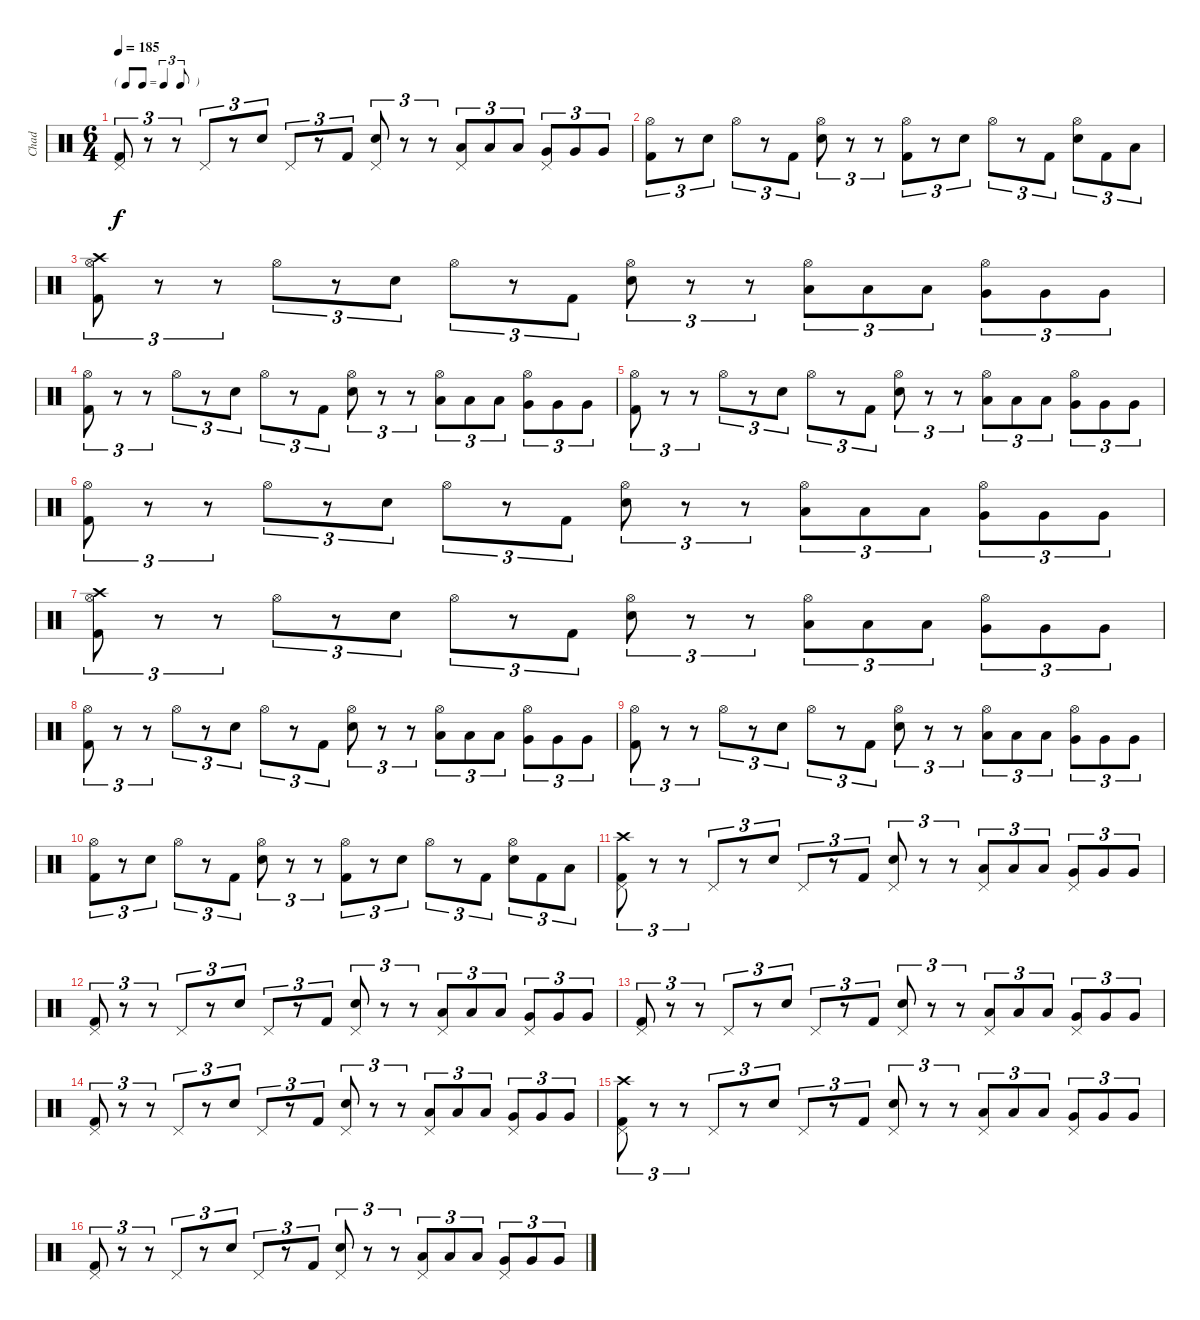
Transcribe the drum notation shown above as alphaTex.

\track ("Chad" "Chad") {instrument percussion}
\staff {score}
\articulation defaults
\ts (6 4)
\tf triplet8th
\tempo 185
\clef neutral
\ks c
("Kick (hit) 2" "Pedal Hi-Hat (hit)").8{tu (3 2) dy f} r.8{tu (3 2)} r.8{tu (3 2)} "Pedal Hi-Hat (hit)".8{tu (3 2)} r.8{tu (3 2)} "Electric Snare (hit)".8{tu (3 2)} "Pedal Hi-Hat (hit)".8{tu (3 2)} r.8{tu (3 2)} "Kick (hit) 2".8{tu (3 2)} ("Electric Snare (hit)" "Pedal Hi-Hat (hit)").8{tu (3 2)} r.8{tu (3 2)} r.8{tu (3 2)} ("Low Tom (hit)" "Pedal Hi-Hat (hit)").8{tu (3 2)} "Low Tom (hit)".8{tu (3 2)} "Low Tom (hit)".8{tu (3 2)} ("Very Low Tom (hit)" "Pedal Hi-Hat (hit)").8{tu (3 2)} "Very Low Tom (hit)".8{tu (3 2)} "Very Low Tom (hit)".8{tu (3 2)} |
("Kick (hit) 2" "Hi-Hat (open)").8{tu (3 2)} r.8{tu (3 2)} "Electric Snare (hit)".8{tu (3 2)} "Hi-Hat (open)".8{tu (3 2)} r.8{tu (3 2)} "Kick (hit) 2".8{tu (3 2)} ("Electric Snare (hit)" "Hi-Hat (open)").8{tu (3 2)} r.8{tu (3 2)} r.8{tu (3 2)} ("Kick (hit) 2" "Hi-Hat (open)").8{tu (3 2)} r.8{tu (3 2)} "Electric Snare (hit)".8{tu (3 2)} "Hi-Hat (open)".8{tu (3 2)} r.8{tu (3 2)} "Kick (hit) 2".8{tu (3 2)} ("Electric Snare (hit)" "Hi-Hat (open)").8{tu (3 2)} "Kick (hit) 2".8{tu (3 2)} "Low Tom (hit)".8{tu (3 2)} |
("Kick (hit) 2" "Hi-Hat (open)" "Crash high (hit)").8{tu (3 2)} r.8{tu (3 2)} r.8{tu (3 2)} "Hi-Hat (open)".8{tu (3 2)} r.8{tu (3 2)} "Electric Snare (hit)".8{tu (3 2)} "Hi-Hat (open)".8{tu (3 2)} r.8{tu (3 2)} "Kick (hit) 2".8{tu (3 2)} ("Electric Snare (hit)" "Hi-Hat (open)").8{tu (3 2)} r.8{tu (3 2)} r.8{tu (3 2)} ("Low Tom (hit)" "Hi-Hat (open)").8{tu (3 2)} "Low Tom (hit)".8{tu (3 2)} "Low Tom (hit)".8{tu (3 2)} ("Very Low Tom (hit)" "Hi-Hat (open)").8{tu (3 2)} "Very Low Tom (hit)".8{tu (3 2)} "Very Low Tom (hit)".8{tu (3 2)} |
("Kick (hit) 2" "Hi-Hat (open)").8{tu (3 2)} r.8{tu (3 2)} r.8{tu (3 2)} "Hi-Hat (open)".8{tu (3 2)} r.8{tu (3 2)} "Electric Snare (hit)".8{tu (3 2)} "Hi-Hat (open)".8{tu (3 2)} r.8{tu (3 2)} "Kick (hit) 2".8{tu (3 2)} ("Electric Snare (hit)" "Hi-Hat (open)").8{tu (3 2)} r.8{tu (3 2)} r.8{tu (3 2)} ("Low Tom (hit)" "Hi-Hat (open)").8{tu (3 2)} "Low Tom (hit)".8{tu (3 2)} "Low Tom (hit)".8{tu (3 2)} ("Very Low Tom (hit)" "Hi-Hat (open)").8{tu (3 2)} "Very Low Tom (hit)".8{tu (3 2)} "Very Low Tom (hit)".8{tu (3 2)} |
("Kick (hit) 2" "Hi-Hat (open)").8{tu (3 2)} r.8{tu (3 2)} r.8{tu (3 2)} "Hi-Hat (open)".8{tu (3 2)} r.8{tu (3 2)} "Electric Snare (hit)".8{tu (3 2)} "Hi-Hat (open)".8{tu (3 2)} r.8{tu (3 2)} "Kick (hit) 2".8{tu (3 2)} ("Electric Snare (hit)" "Hi-Hat (open)").8{tu (3 2)} r.8{tu (3 2)} r.8{tu (3 2)} ("Low Tom (hit)" "Hi-Hat (open)").8{tu (3 2)} "Low Tom (hit)".8{tu (3 2)} "Low Tom (hit)".8{tu (3 2)} ("Very Low Tom (hit)" "Hi-Hat (open)").8{tu (3 2)} "Very Low Tom (hit)".8{tu (3 2)} "Very Low Tom (hit)".8{tu (3 2)} |
("Kick (hit) 2" "Hi-Hat (open)").8{tu (3 2)} r.8{tu (3 2)} r.8{tu (3 2)} "Hi-Hat (open)".8{tu (3 2)} r.8{tu (3 2)} "Electric Snare (hit)".8{tu (3 2)} "Hi-Hat (open)".8{tu (3 2)} r.8{tu (3 2)} "Kick (hit) 2".8{tu (3 2)} ("Electric Snare (hit)" "Hi-Hat (open)").8{tu (3 2)} r.8{tu (3 2)} r.8{tu (3 2)} ("Low Tom (hit)" "Hi-Hat (open)").8{tu (3 2)} "Low Tom (hit)".8{tu (3 2)} "Low Tom (hit)".8{tu (3 2)} ("Very Low Tom (hit)" "Hi-Hat (open)").8{tu (3 2)} "Very Low Tom (hit)".8{tu (3 2)} "Very Low Tom (hit)".8{tu (3 2)} |
("Kick (hit) 2" "Hi-Hat (open)" "Crash high (hit)").8{tu (3 2)} r.8{tu (3 2)} r.8{tu (3 2)} "Hi-Hat (open)".8{tu (3 2)} r.8{tu (3 2)} "Electric Snare (hit)".8{tu (3 2)} "Hi-Hat (open)".8{tu (3 2)} r.8{tu (3 2)} "Kick (hit) 2".8{tu (3 2)} ("Electric Snare (hit)" "Hi-Hat (open)").8{tu (3 2)} r.8{tu (3 2)} r.8{tu (3 2)} ("Low Tom (hit)" "Hi-Hat (open)").8{tu (3 2)} "Low Tom (hit)".8{tu (3 2)} "Low Tom (hit)".8{tu (3 2)} ("Very Low Tom (hit)" "Hi-Hat (open)").8{tu (3 2)} "Very Low Tom (hit)".8{tu (3 2)} "Very Low Tom (hit)".8{tu (3 2)} |
("Kick (hit) 2" "Hi-Hat (open)").8{tu (3 2)} r.8{tu (3 2)} r.8{tu (3 2)} "Hi-Hat (open)".8{tu (3 2)} r.8{tu (3 2)} "Electric Snare (hit)".8{tu (3 2)} "Hi-Hat (open)".8{tu (3 2)} r.8{tu (3 2)} "Kick (hit) 2".8{tu (3 2)} ("Electric Snare (hit)" "Hi-Hat (open)").8{tu (3 2)} r.8{tu (3 2)} r.8{tu (3 2)} ("Low Tom (hit)" "Hi-Hat (open)").8{tu (3 2)} "Low Tom (hit)".8{tu (3 2)} "Low Tom (hit)".8{tu (3 2)} ("Very Low Tom (hit)" "Hi-Hat (open)").8{tu (3 2)} "Very Low Tom (hit)".8{tu (3 2)} "Very Low Tom (hit)".8{tu (3 2)} |
("Kick (hit) 2" "Hi-Hat (open)").8{tu (3 2)} r.8{tu (3 2)} r.8{tu (3 2)} "Hi-Hat (open)".8{tu (3 2)} r.8{tu (3 2)} "Electric Snare (hit)".8{tu (3 2)} "Hi-Hat (open)".8{tu (3 2)} r.8{tu (3 2)} "Kick (hit) 2".8{tu (3 2)} ("Electric Snare (hit)" "Hi-Hat (open)").8{tu (3 2)} r.8{tu (3 2)} r.8{tu (3 2)} ("Low Tom (hit)" "Hi-Hat (open)").8{tu (3 2)} "Low Tom (hit)".8{tu (3 2)} "Low Tom (hit)".8{tu (3 2)} ("Very Low Tom (hit)" "Hi-Hat (open)").8{tu (3 2)} "Very Low Tom (hit)".8{tu (3 2)} "Very Low Tom (hit)".8{tu (3 2)} |
("Kick (hit) 2" "Hi-Hat (open)").8{tu (3 2)} r.8{tu (3 2)} "Electric Snare (hit)".8{tu (3 2)} "Hi-Hat (open)".8{tu (3 2)} r.8{tu (3 2)} "Kick (hit) 2".8{tu (3 2)} ("Electric Snare (hit)" "Hi-Hat (open)").8{tu (3 2)} r.8{tu (3 2)} r.8{tu (3 2)} ("Kick (hit) 2" "Hi-Hat (open)").8{tu (3 2)} r.8{tu (3 2)} "Electric Snare (hit)".8{tu (3 2)} "Hi-Hat (open)".8{tu (3 2)} r.8{tu (3 2)} "Kick (hit) 2".8{tu (3 2)} ("Electric Snare (hit)" "Hi-Hat (open)").8{tu (3 2)} "Kick (hit) 2".8{tu (3 2)} "Low Tom (hit)".8{tu (3 2)} |
("Kick (hit) 2" "Pedal Hi-Hat (hit)" "Crash high (hit)").8{tu (3 2)} r.8{tu (3 2)} r.8{tu (3 2)} "Pedal Hi-Hat (hit)".8{tu (3 2)} r.8{tu (3 2)} "Electric Snare (hit)".8{tu (3 2)} "Pedal Hi-Hat (hit)".8{tu (3 2)} r.8{tu (3 2)} "Kick (hit) 2".8{tu (3 2)} ("Electric Snare (hit)" "Pedal Hi-Hat (hit)").8{tu (3 2)} r.8{tu (3 2)} r.8{tu (3 2)} ("Low Tom (hit)" "Pedal Hi-Hat (hit)").8{tu (3 2)} "Low Tom (hit)".8{tu (3 2)} "Low Tom (hit)".8{tu (3 2)} ("Very Low Tom (hit)" "Pedal Hi-Hat (hit)").8{tu (3 2)} "Very Low Tom (hit)".8{tu (3 2)} "Very Low Tom (hit)".8{tu (3 2)} |
("Kick (hit) 2" "Pedal Hi-Hat (hit)").8{tu (3 2)} r.8{tu (3 2)} r.8{tu (3 2)} "Pedal Hi-Hat (hit)".8{tu (3 2)} r.8{tu (3 2)} "Electric Snare (hit)".8{tu (3 2)} "Pedal Hi-Hat (hit)".8{tu (3 2)} r.8{tu (3 2)} "Kick (hit) 2".8{tu (3 2)} ("Electric Snare (hit)" "Pedal Hi-Hat (hit)").8{tu (3 2)} r.8{tu (3 2)} r.8{tu (3 2)} ("Low Tom (hit)" "Pedal Hi-Hat (hit)").8{tu (3 2)} "Low Tom (hit)".8{tu (3 2)} "Low Tom (hit)".8{tu (3 2)} ("Very Low Tom (hit)" "Pedal Hi-Hat (hit)").8{tu (3 2)} "Very Low Tom (hit)".8{tu (3 2)} "Very Low Tom (hit)".8{tu (3 2)} |
("Kick (hit) 2" "Pedal Hi-Hat (hit)").8{tu (3 2)} r.8{tu (3 2)} r.8{tu (3 2)} "Pedal Hi-Hat (hit)".8{tu (3 2)} r.8{tu (3 2)} "Electric Snare (hit)".8{tu (3 2)} "Pedal Hi-Hat (hit)".8{tu (3 2)} r.8{tu (3 2)} "Kick (hit) 2".8{tu (3 2)} ("Electric Snare (hit)" "Pedal Hi-Hat (hit)").8{tu (3 2)} r.8{tu (3 2)} r.8{tu (3 2)} ("Low Tom (hit)" "Pedal Hi-Hat (hit)").8{tu (3 2)} "Low Tom (hit)".8{tu (3 2)} "Low Tom (hit)".8{tu (3 2)} ("Very Low Tom (hit)" "Pedal Hi-Hat (hit)").8{tu (3 2)} "Very Low Tom (hit)".8{tu (3 2)} "Very Low Tom (hit)".8{tu (3 2)} |
("Kick (hit) 2" "Pedal Hi-Hat (hit)").8{tu (3 2)} r.8{tu (3 2)} r.8{tu (3 2)} "Pedal Hi-Hat (hit)".8{tu (3 2)} r.8{tu (3 2)} "Electric Snare (hit)".8{tu (3 2)} "Pedal Hi-Hat (hit)".8{tu (3 2)} r.8{tu (3 2)} "Kick (hit) 2".8{tu (3 2)} ("Electric Snare (hit)" "Pedal Hi-Hat (hit)").8{tu (3 2)} r.8{tu (3 2)} r.8{tu (3 2)} ("Low Tom (hit)" "Pedal Hi-Hat (hit)").8{tu (3 2)} "Low Tom (hit)".8{tu (3 2)} "Low Tom (hit)".8{tu (3 2)} ("Very Low Tom (hit)" "Pedal Hi-Hat (hit)").8{tu (3 2)} "Very Low Tom (hit)".8{tu (3 2)} "Very Low Tom (hit)".8{tu (3 2)} |
("Kick (hit) 2" "Pedal Hi-Hat (hit)" "Crash high (hit)").8{tu (3 2)} r.8{tu (3 2)} r.8{tu (3 2)} "Pedal Hi-Hat (hit)".8{tu (3 2)} r.8{tu (3 2)} "Electric Snare (hit)".8{tu (3 2)} "Pedal Hi-Hat (hit)".8{tu (3 2)} r.8{tu (3 2)} "Kick (hit) 2".8{tu (3 2)} ("Electric Snare (hit)" "Pedal Hi-Hat (hit)").8{tu (3 2)} r.8{tu (3 2)} r.8{tu (3 2)} ("Low Tom (hit)" "Pedal Hi-Hat (hit)").8{tu (3 2)} "Low Tom (hit)".8{tu (3 2)} "Low Tom (hit)".8{tu (3 2)} ("Very Low Tom (hit)" "Pedal Hi-Hat (hit)").8{tu (3 2)} "Very Low Tom (hit)".8{tu (3 2)} "Very Low Tom (hit)".8{tu (3 2)} |
("Kick (hit) 2" "Pedal Hi-Hat (hit)").8{tu (3 2)} r.8{tu (3 2)} r.8{tu (3 2)} "Pedal Hi-Hat (hit)".8{tu (3 2)} r.8{tu (3 2)} "Electric Snare (hit)".8{tu (3 2)} "Pedal Hi-Hat (hit)".8{tu (3 2)} r.8{tu (3 2)} "Kick (hit) 2".8{tu (3 2)} ("Electric Snare (hit)" "Pedal Hi-Hat (hit)").8{tu (3 2)} r.8{tu (3 2)} r.8{tu (3 2)} ("Low Tom (hit)" "Pedal Hi-Hat (hit)").8{tu (3 2)} "Low Tom (hit)".8{tu (3 2)} "Low Tom (hit)".8{tu (3 2)} ("Very Low Tom (hit)" "Pedal Hi-Hat (hit)").8{tu (3 2)} "Very Low Tom (hit)".8{tu (3 2)} "Very Low Tom (hit)".8{tu (3 2)}
